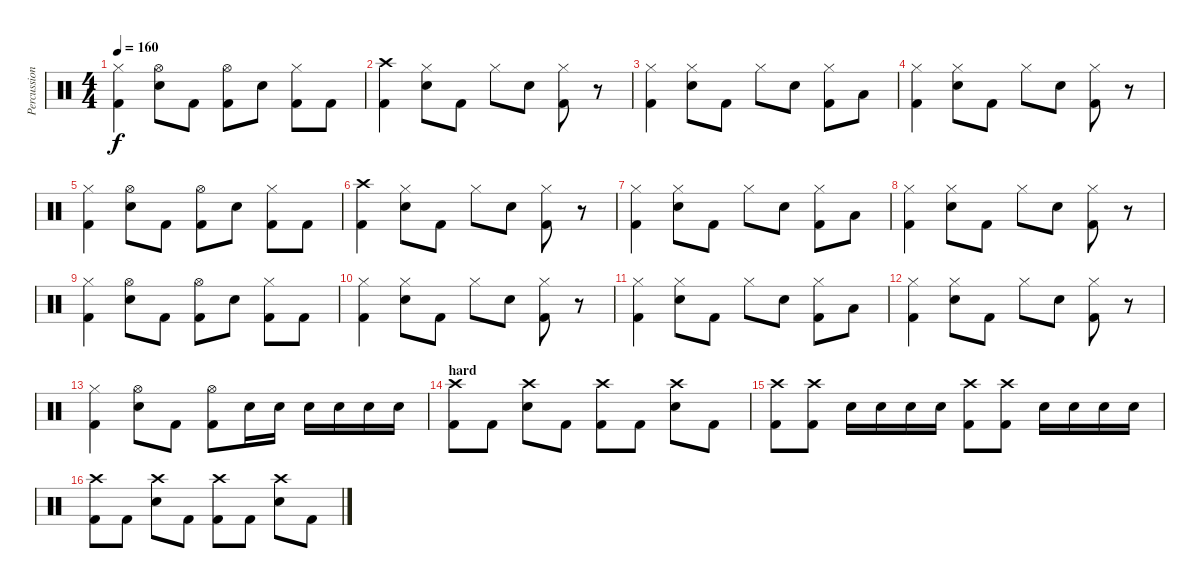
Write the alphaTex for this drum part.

\track ("Percussions" "Percussion") {instrument percussion}
\staff {score}
\articulation defaults
\ts (4 4)
\tempo 160
\clef neutral
\ks c
("Hi-Hat (closed)" "Kick (hit) 2").4{dy f} ("Hi-Hat (open)" "Snare (hit) 2").8 "Kick (hit) 2".8 ("Hi-Hat (open)" "Kick (hit) 2").8 "Snare (hit) 2".8 ("Hi-Hat (closed)" "Kick (hit) 2").8 "Kick (hit) 2".8 |
("Crash high (hit)" "Kick (hit) 2").4 ("Hi-Hat (closed)" "Snare (hit) 2").8 "Kick (hit) 2".8 "Hi-Hat (closed)".8 "Snare (hit) 2".8 ("Hi-Hat (closed)" "Kick (hit) 2").8 r.8 |
("Hi-Hat (closed)" "Kick (hit) 2").4 ("Hi-Hat (closed)" "Snare (hit) 2").8 "Kick (hit) 2".8 "Hi-Hat (closed)".8 "Snare (hit) 2".8 ("Hi-Hat (closed)" "Kick (hit) 2").8 "Low Tom (hit)".8 |
("Hi-Hat (closed)" "Kick (hit) 2").4 ("Hi-Hat (closed)" "Snare (hit) 2").8 "Kick (hit) 2".8 "Hi-Hat (closed)".8 "Snare (hit) 2".8 ("Hi-Hat (closed)" "Kick (hit) 2").8 r.8 |
("Hi-Hat (closed)" "Kick (hit) 2").4 ("Hi-Hat (open)" "Snare (hit) 2").8 "Kick (hit) 2".8 ("Hi-Hat (open)" "Kick (hit) 2").8 "Snare (hit) 2".8 ("Hi-Hat (closed)" "Kick (hit) 2").8 "Kick (hit) 2".8 |
\section ("" "")
("Crash high (hit)" "Kick (hit) 2").4 ("Hi-Hat (closed)" "Snare (hit) 2").8 "Kick (hit) 2".8 "Hi-Hat (closed)".8 "Snare (hit) 2".8 ("Hi-Hat (closed)" "Kick (hit) 2").8 r.8 |
("Hi-Hat (closed)" "Kick (hit) 2").4 ("Hi-Hat (closed)" "Snare (hit) 2").8 "Kick (hit) 2".8 "Hi-Hat (closed)".8 "Snare (hit) 2".8 ("Hi-Hat (closed)" "Kick (hit) 2").8 "Low Tom (hit)".8 |
("Hi-Hat (closed)" "Kick (hit) 2").4 ("Hi-Hat (closed)" "Snare (hit) 2").8 "Kick (hit) 2".8 "Hi-Hat (closed)".8 "Snare (hit) 2".8 ("Hi-Hat (closed)" "Kick (hit) 2").8 r.8 |
("Hi-Hat (closed)" "Kick (hit) 2").4 ("Hi-Hat (open)" "Snare (hit) 2").8 "Kick (hit) 2".8 ("Hi-Hat (open)" "Kick (hit) 2").8 "Snare (hit) 2".8 ("Hi-Hat (closed)" "Kick (hit) 2").8 "Kick (hit) 2".8 |
("Hi-Hat (closed)" "Kick (hit) 2").4 ("Hi-Hat (closed)" "Snare (hit) 2").8 "Kick (hit) 2".8 "Hi-Hat (closed)".8 "Snare (hit) 2".8 ("Hi-Hat (closed)" "Kick (hit) 2").8 r.8 |
("Hi-Hat (closed)" "Kick (hit) 2").4 ("Hi-Hat (closed)" "Snare (hit) 2").8 "Kick (hit) 2".8 "Hi-Hat (closed)".8 "Snare (hit) 2".8 ("Hi-Hat (closed)" "Kick (hit) 2").8 "Low Tom (hit)".8 |
("Hi-Hat (closed)" "Kick (hit) 2").4 ("Hi-Hat (closed)" "Snare (hit) 2").8 "Kick (hit) 2".8 "Hi-Hat (closed)".8 "Snare (hit) 2".8 ("Hi-Hat (closed)" "Kick (hit) 2").8 r.8 |
("Hi-Hat (closed)" "Kick (hit) 2").4 ("Hi-Hat (open)" "Snare (hit) 2").8 "Kick (hit) 2".8 ("Hi-Hat (open)" "Kick (hit) 2").8 "Snare (hit) 2".16 "Snare (hit) 2".16 "Snare (hit) 2".16 "Snare (hit) 2".16 "Snare (hit) 2".16 "Snare (hit) 2".16 |
\section ("" "hard")
("Crash high (hit)" "Kick (hit) 2").8 "Kick (hit) 2".8 ("Crash high (hit)" "Snare (hit) 2").8 "Kick (hit) 2".8 ("Crash high (hit)" "Kick (hit) 2").8 "Kick (hit) 2".8 ("Crash high (hit)" "Snare (hit) 2").8 "Kick (hit) 2".8 |
("Crash high (hit)" "Kick (hit) 2").8 ("Crash high (hit)" "Kick (hit) 2").8 "Snare (hit) 2".16 "Snare (hit) 2".16 "Snare (hit) 2".16 "Snare (hit) 2".16 ("Crash high (hit)" "Kick (hit) 2").8 ("Crash high (hit)" "Kick (hit) 2").8 "Snare (hit) 2".16 "Snare (hit) 2".16 "Snare (hit) 2".16 "Snare (hit) 2".16 |
("Crash high (hit)" "Kick (hit) 2").8 "Kick (hit) 2".8 ("Crash high (hit)" "Snare (hit) 2").8 "Kick (hit) 2".8 ("Crash high (hit)" "Kick (hit) 2").8 "Kick (hit) 2".8 ("Crash high (hit)" "Snare (hit) 2").8 "Kick (hit) 2".8
